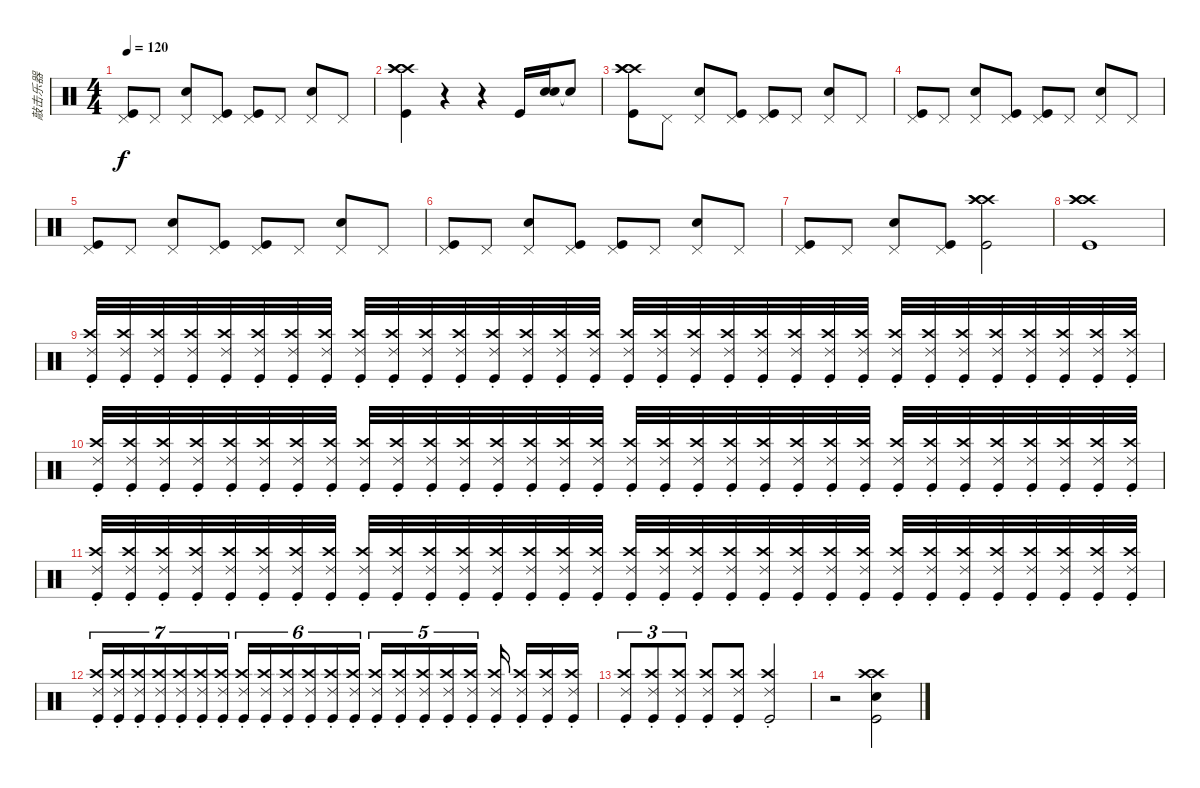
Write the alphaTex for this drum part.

\track ("敲击乐器" "敲击乐器") {instrument percussion}
\staff {score}
\articulation defaults
\ts (4 4)
\tempo 120
\clef neutral
\ks c
("Pedal Hi-Hat (hit)" "Kick (hit)").8{dy f} "Pedal Hi-Hat (hit)".8 ("Pedal Hi-Hat (hit)" "Metronome (bell)").8 ("Pedal Hi-Hat (hit)" "Kick (hit)").8 ("Pedal Hi-Hat (hit)" "Kick (hit)").8 "Pedal Hi-Hat (hit)".8 ("Pedal Hi-Hat (hit)" "Metronome (bell)").8 "Pedal Hi-Hat (hit)".8 |
("Crash high (hit)" "Crash high (hit)" "Crash high (hit)" "Kick (hit)").4 r.4 r.4 "Kick (hit)".16 ("Metronome (bell)" "Metronome (bell)").16 "Snare (hit)"{t}.8 |
("Crash high (hit)" "Crash high (hit)" "Crash high (hit)" "Kick (hit)").8 "Pedal Hi-Hat (hit)".8 ("Pedal Hi-Hat (hit)" "Metronome (bell)").8 ("Pedal Hi-Hat (hit)" "Kick (hit)").8 ("Pedal Hi-Hat (hit)" "Kick (hit)").8 "Pedal Hi-Hat (hit)".8 ("Pedal Hi-Hat (hit)" "Metronome (bell)").8 "Pedal Hi-Hat (hit)".8 |
("Pedal Hi-Hat (hit)" "Kick (hit)").8 "Pedal Hi-Hat (hit)".8 ("Pedal Hi-Hat (hit)" "Metronome (bell)").8 ("Pedal Hi-Hat (hit)" "Kick (hit)").8 ("Pedal Hi-Hat (hit)" "Kick (hit)").8 "Pedal Hi-Hat (hit)".8 ("Pedal Hi-Hat (hit)" "Metronome (bell)").8 "Pedal Hi-Hat (hit)".8 |
("Pedal Hi-Hat (hit)" "Kick (hit)").8 "Pedal Hi-Hat (hit)".8 ("Pedal Hi-Hat (hit)" "Metronome (bell)").8 ("Pedal Hi-Hat (hit)" "Kick (hit)").8 ("Pedal Hi-Hat (hit)" "Kick (hit)").8 "Pedal Hi-Hat (hit)".8 ("Pedal Hi-Hat (hit)" "Metronome (bell)").8 "Pedal Hi-Hat (hit)".8 |
("Pedal Hi-Hat (hit)" "Kick (hit)").8 "Pedal Hi-Hat (hit)".8 ("Pedal Hi-Hat (hit)" "Metronome (bell)").8 ("Pedal Hi-Hat (hit)" "Kick (hit)").8 ("Pedal Hi-Hat (hit)" "Kick (hit)").8 "Pedal Hi-Hat (hit)".8 ("Pedal Hi-Hat (hit)" "Metronome (bell)").8 "Pedal Hi-Hat (hit)".8 |
("Pedal Hi-Hat (hit)" "Kick (hit)").8 "Pedal Hi-Hat (hit)".8 ("Pedal Hi-Hat (hit)" "Metronome (bell)").8 ("Pedal Hi-Hat (hit)" "Kick (hit)").8 ("Crash high (hit)" "Crash high (hit)" "Crash high (hit)" "Kick (hit)").2 |
("Crash high (hit)" "Crash high (hit)" "Crash high (hit)" "Kick (hit)").1 |
("Crash high (hit)" "Ride (choke) 2" "Kick (hit)").32 ("Crash high (hit)" "Ride (choke) 2" "Kick (hit)").32 ("Crash high (hit)" "Ride (choke) 2" "Kick (hit)").32 ("Crash high (hit)" "Ride (choke) 2" "Kick (hit)").32 ("Crash high (hit)" "Ride (choke) 2" "Kick (hit)").32 ("Crash high (hit)" "Ride (choke) 2" "Kick (hit)").32 ("Crash high (hit)" "Ride (choke) 2" "Kick (hit)").32 ("Crash high (hit)" "Ride (choke) 2" "Kick (hit)").32 ("Crash high (hit)" "Ride (choke) 2" "Kick (hit)").32 ("Crash high (hit)" "Ride (choke) 2" "Kick (hit)").32 ("Crash high (hit)" "Ride (choke) 2" "Kick (hit)").32 ("Crash high (hit)" "Ride (choke) 2" "Kick (hit)").32 ("Crash high (hit)" "Ride (choke) 2" "Kick (hit)").32 ("Crash high (hit)" "Ride (choke) 2" "Kick (hit)").32 ("Crash high (hit)" "Ride (choke) 2" "Kick (hit)").32 ("Crash high (hit)" "Ride (choke) 2" "Kick (hit)").32 ("Crash high (hit)" "Ride (choke) 2" "Kick (hit)").32 ("Crash high (hit)" "Ride (choke) 2" "Kick (hit)").32 ("Crash high (hit)" "Ride (choke) 2" "Kick (hit)").32 ("Crash high (hit)" "Ride (choke) 2" "Kick (hit)").32 ("Crash high (hit)" "Ride (choke) 2" "Kick (hit)").32 ("Crash high (hit)" "Ride (choke) 2" "Kick (hit)").32 ("Crash high (hit)" "Ride (choke) 2" "Kick (hit)").32 ("Crash high (hit)" "Ride (choke) 2" "Kick (hit)").32 ("Crash high (hit)" "Ride (choke) 2" "Kick (hit)").32 ("Crash high (hit)" "Ride (choke) 2" "Kick (hit)").32 ("Crash high (hit)" "Ride (choke) 2" "Kick (hit)").32 ("Crash high (hit)" "Ride (choke) 2" "Kick (hit)").32 ("Crash high (hit)" "Ride (choke) 2" "Kick (hit)").32 ("Crash high (hit)" "Ride (choke) 2" "Kick (hit)").32 ("Crash high (hit)" "Ride (choke) 2" "Kick (hit)").32 ("Crash high (hit)" "Ride (choke) 2" "Kick (hit)").32 |
("Crash high (hit)" "Ride (choke) 2" "Kick (hit)").32 ("Crash high (hit)" "Ride (choke) 2" "Kick (hit)").32 ("Crash high (hit)" "Ride (choke) 2" "Kick (hit)").32 ("Crash high (hit)" "Ride (choke) 2" "Kick (hit)").32 ("Crash high (hit)" "Ride (choke) 2" "Kick (hit)").32 ("Crash high (hit)" "Ride (choke) 2" "Kick (hit)").32 ("Crash high (hit)" "Ride (choke) 2" "Kick (hit)").32 ("Crash high (hit)" "Ride (choke) 2" "Kick (hit)").32 ("Crash high (hit)" "Ride (choke) 2" "Kick (hit)").32 ("Crash high (hit)" "Ride (choke) 2" "Kick (hit)").32 ("Crash high (hit)" "Ride (choke) 2" "Kick (hit)").32 ("Crash high (hit)" "Ride (choke) 2" "Kick (hit)").32 ("Crash high (hit)" "Ride (choke) 2" "Kick (hit)").32 ("Crash high (hit)" "Ride (choke) 2" "Kick (hit)").32 ("Crash high (hit)" "Ride (choke) 2" "Kick (hit)").32 ("Crash high (hit)" "Ride (choke) 2" "Kick (hit)").32 ("Crash high (hit)" "Ride (choke) 2" "Kick (hit)").32 ("Crash high (hit)" "Ride (choke) 2" "Kick (hit)").32 ("Crash high (hit)" "Ride (choke) 2" "Kick (hit)").32 ("Crash high (hit)" "Ride (choke) 2" "Kick (hit)").32 ("Crash high (hit)" "Ride (choke) 2" "Kick (hit)").32 ("Crash high (hit)" "Ride (choke) 2" "Kick (hit)").32 ("Crash high (hit)" "Ride (choke) 2" "Kick (hit)").32 ("Crash high (hit)" "Ride (choke) 2" "Kick (hit)").32 ("Crash high (hit)" "Ride (choke) 2" "Kick (hit)").32 ("Crash high (hit)" "Ride (choke) 2" "Kick (hit)").32 ("Crash high (hit)" "Ride (choke) 2" "Kick (hit)").32 ("Crash high (hit)" "Ride (choke) 2" "Kick (hit)").32 ("Crash high (hit)" "Ride (choke) 2" "Kick (hit)").32 ("Crash high (hit)" "Ride (choke) 2" "Kick (hit)").32 ("Crash high (hit)" "Ride (choke) 2" "Kick (hit)").32 ("Crash high (hit)" "Ride (choke) 2" "Kick (hit)").32 |
("Crash high (hit)" "Ride (choke) 2" "Kick (hit)").32 ("Crash high (hit)" "Ride (choke) 2" "Kick (hit)").32 ("Crash high (hit)" "Ride (choke) 2" "Kick (hit)").32 ("Crash high (hit)" "Ride (choke) 2" "Kick (hit)").32 ("Crash high (hit)" "Ride (choke) 2" "Kick (hit)").32 ("Crash high (hit)" "Ride (choke) 2" "Kick (hit)").32 ("Crash high (hit)" "Ride (choke) 2" "Kick (hit)").32 ("Crash high (hit)" "Ride (choke) 2" "Kick (hit)").32 ("Crash high (hit)" "Ride (choke) 2" "Kick (hit)").32 ("Crash high (hit)" "Ride (choke) 2" "Kick (hit)").32 ("Crash high (hit)" "Ride (choke) 2" "Kick (hit)").32 ("Crash high (hit)" "Ride (choke) 2" "Kick (hit)").32 ("Crash high (hit)" "Ride (choke) 2" "Kick (hit)").32 ("Crash high (hit)" "Ride (choke) 2" "Kick (hit)").32 ("Crash high (hit)" "Ride (choke) 2" "Kick (hit)").32 ("Crash high (hit)" "Ride (choke) 2" "Kick (hit)").32 ("Crash high (hit)" "Ride (choke) 2" "Kick (hit)").32 ("Crash high (hit)" "Ride (choke) 2" "Kick (hit)").32 ("Crash high (hit)" "Ride (choke) 2" "Kick (hit)").32 ("Crash high (hit)" "Ride (choke) 2" "Kick (hit)").32 ("Crash high (hit)" "Ride (choke) 2" "Kick (hit)").32 ("Crash high (hit)" "Ride (choke) 2" "Kick (hit)").32 ("Crash high (hit)" "Ride (choke) 2" "Kick (hit)").32 ("Crash high (hit)" "Ride (choke) 2" "Kick (hit)").32 ("Crash high (hit)" "Ride (choke) 2" "Kick (hit)").32 ("Crash high (hit)" "Ride (choke) 2" "Kick (hit)").32 ("Crash high (hit)" "Ride (choke) 2" "Kick (hit)").32 ("Crash high (hit)" "Ride (choke) 2" "Kick (hit)").32 ("Crash high (hit)" "Ride (choke) 2" "Kick (hit)").32 ("Crash high (hit)" "Ride (choke) 2" "Kick (hit)").32 ("Crash high (hit)" "Ride (choke) 2" "Kick (hit)").32 ("Crash high (hit)" "Ride (choke) 2" "Kick (hit)").32 |
("Crash high (hit)" "Ride (choke) 2" "Kick (hit)").16{tu (7 4)} ("Crash high (hit)" "Ride (choke) 2" "Kick (hit)").16{tu (7 4)} ("Crash high (hit)" "Ride (choke) 2" "Kick (hit)").16{tu (7 4)} ("Crash high (hit)" "Ride (choke) 2" "Kick (hit)").16{tu (7 4)} ("Crash high (hit)" "Ride (choke) 2" "Kick (hit)").16{tu (7 4)} ("Crash high (hit)" "Ride (choke) 2" "Kick (hit)").16{tu (7 4)} ("Crash high (hit)" "Ride (choke) 2" "Kick (hit)").16{tu (7 4)} ("Crash high (hit)" "Ride (choke) 2" "Kick (hit)").16{tu (6 4)} ("Crash high (hit)" "Ride (choke) 2" "Kick (hit)").16{tu (6 4)} ("Crash high (hit)" "Ride (choke) 2" "Kick (hit)").16{tu (6 4)} ("Crash high (hit)" "Ride (choke) 2" "Kick (hit)").16{tu (6 4)} ("Crash high (hit)" "Ride (choke) 2" "Kick (hit)").16{tu (6 4)} ("Crash high (hit)" "Ride (choke) 2" "Kick (hit)").16{tu (6 4)} ("Crash high (hit)" "Ride (choke) 2" "Kick (hit)").16{tu (5 4)} ("Crash high (hit)" "Ride (choke) 2" "Kick (hit)").16{tu (5 4)} ("Crash high (hit)" "Ride (choke) 2" "Kick (hit)").16{tu (5 4)} ("Crash high (hit)" "Ride (choke) 2" "Kick (hit)").16{tu (5 4)} ("Crash high (hit)" "Ride (choke) 2" "Kick (hit)").16{tu (5 4)} ("Crash high (hit)" "Ride (choke) 2" "Kick (hit)").16 ("Crash high (hit)" "Ride (choke) 2" "Kick (hit)").16 ("Crash high (hit)" "Ride (choke) 2" "Kick (hit)").16 ("Crash high (hit)" "Ride (choke) 2" "Kick (hit)").16 |
("Crash high (hit)" "Ride (choke) 2" "Kick (hit)").8{tu (3 2)} ("Crash high (hit)" "Ride (choke) 2" "Kick (hit)").8{tu (3 2)} ("Crash high (hit)" "Ride (choke) 2" "Kick (hit)").8{tu (3 2)} ("Crash high (hit)" "Ride (choke) 2" "Kick (hit)").8 ("Crash high (hit)" "Ride (choke) 2" "Kick (hit)").8 ("Crash high (hit)" "Ride (choke) 2" "Kick (hit)").2 |
r.2 ("Crash high (hit)" "Crash high (hit)" "Metronome (bell)" "Kick (hit)").2
